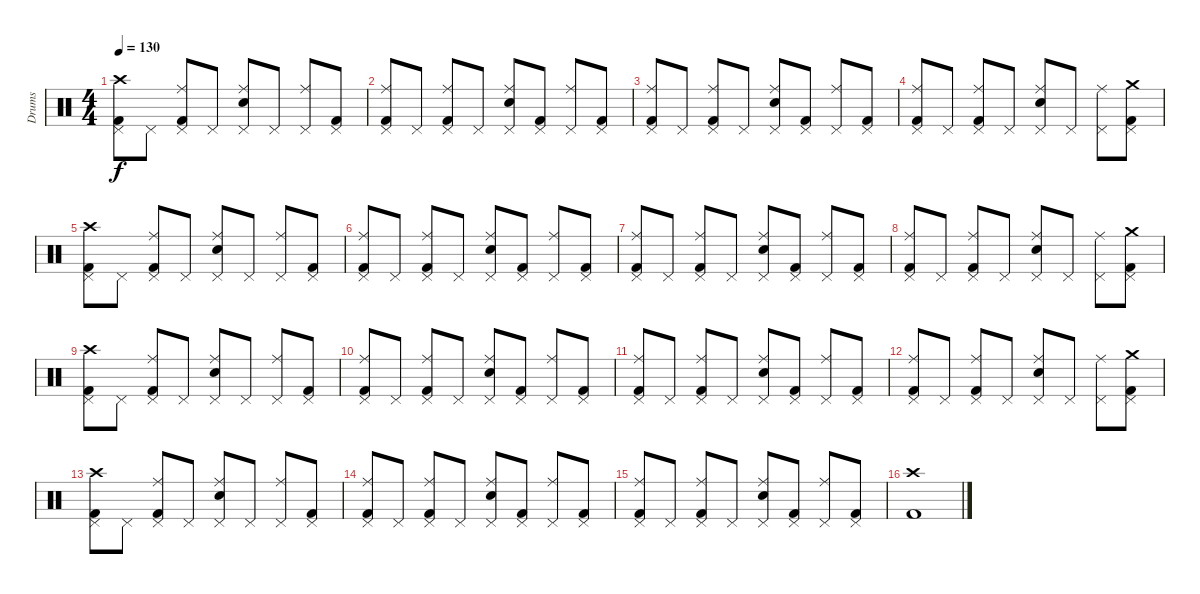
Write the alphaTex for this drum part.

\track ("Drums" "Drums") {instrument percussion}
\staff {score}
\articulation defaults
\ts (4 4)
\tempo 130
\clef neutral
\ks c
("Crash high (hit)" "Kick (hit) 2" "Pedal Hi-Hat (hit)").8{dy f} "Pedal Hi-Hat (hit)".8 ("Ride (middle)" "Kick (hit) 2" "Pedal Hi-Hat (hit)").8 "Pedal Hi-Hat (hit)".8 ("Ride (middle)" "Electric Snare (hit)" "Pedal Hi-Hat (hit)").8 "Pedal Hi-Hat (hit)".8 ("Ride (middle)" "Pedal Hi-Hat (hit)").8 ("Kick (hit) 2" "Pedal Hi-Hat (hit)").8 |
("Ride (middle)" "Kick (hit) 2" "Pedal Hi-Hat (hit)").8 "Pedal Hi-Hat (hit)".8 ("Ride (middle)" "Kick (hit) 2" "Pedal Hi-Hat (hit)").8 "Pedal Hi-Hat (hit)".8 ("Ride (middle)" "Electric Snare (hit)" "Pedal Hi-Hat (hit)").8 ("Kick (hit) 2" "Pedal Hi-Hat (hit)").8 ("Ride (middle)" "Pedal Hi-Hat (hit)").8 ("Kick (hit) 2" "Pedal Hi-Hat (hit)").8 |
("Ride (middle)" "Kick (hit) 2" "Pedal Hi-Hat (hit)").8 "Pedal Hi-Hat (hit)".8 ("Ride (middle)" "Kick (hit) 2" "Pedal Hi-Hat (hit)").8 "Pedal Hi-Hat (hit)".8 ("Ride (middle)" "Electric Snare (hit)" "Pedal Hi-Hat (hit)").8 ("Kick (hit) 2" "Pedal Hi-Hat (hit)").8 ("Ride (middle)" "Pedal Hi-Hat (hit)").8 ("Kick (hit) 2" "Pedal Hi-Hat (hit)").8 |
("Ride (middle)" "Kick (hit) 2" "Pedal Hi-Hat (hit)").8 "Pedal Hi-Hat (hit)".8 ("Ride (middle)" "Kick (hit) 2" "Pedal Hi-Hat (hit)").8 "Pedal Hi-Hat (hit)".8 ("Ride (middle)" "Electric Snare (hit)" "Pedal Hi-Hat (hit)").8 "Pedal Hi-Hat (hit)".8 ("Ride (middle)" "Pedal Hi-Hat (hit)").8 ("Crash medium (hit)" "Kick (hit) 2" "Pedal Hi-Hat (hit)").8 |
("Crash high (hit)" "Kick (hit) 2" "Pedal Hi-Hat (hit)").8 "Pedal Hi-Hat (hit)".8 ("Ride (middle)" "Kick (hit) 2" "Pedal Hi-Hat (hit)").8 "Pedal Hi-Hat (hit)".8 ("Ride (middle)" "Electric Snare (hit)" "Pedal Hi-Hat (hit)").8 "Pedal Hi-Hat (hit)".8 ("Ride (middle)" "Pedal Hi-Hat (hit)").8 ("Kick (hit) 2" "Pedal Hi-Hat (hit)").8 |
("Ride (middle)" "Kick (hit) 2" "Pedal Hi-Hat (hit)").8 "Pedal Hi-Hat (hit)".8 ("Ride (middle)" "Kick (hit) 2" "Pedal Hi-Hat (hit)").8 "Pedal Hi-Hat (hit)".8 ("Ride (middle)" "Electric Snare (hit)" "Pedal Hi-Hat (hit)").8 ("Kick (hit) 2" "Pedal Hi-Hat (hit)").8 ("Ride (middle)" "Pedal Hi-Hat (hit)").8 ("Kick (hit) 2" "Pedal Hi-Hat (hit)").8 |
("Ride (middle)" "Kick (hit) 2" "Pedal Hi-Hat (hit)").8 "Pedal Hi-Hat (hit)".8 ("Ride (middle)" "Kick (hit) 2" "Pedal Hi-Hat (hit)").8 "Pedal Hi-Hat (hit)".8 ("Ride (middle)" "Electric Snare (hit)" "Pedal Hi-Hat (hit)").8 ("Kick (hit) 2" "Pedal Hi-Hat (hit)").8 ("Ride (middle)" "Pedal Hi-Hat (hit)").8 ("Kick (hit) 2" "Pedal Hi-Hat (hit)").8 |
("Ride (middle)" "Kick (hit) 2" "Pedal Hi-Hat (hit)").8 "Pedal Hi-Hat (hit)".8 ("Ride (middle)" "Kick (hit) 2" "Pedal Hi-Hat (hit)").8 "Pedal Hi-Hat (hit)".8 ("Ride (middle)" "Electric Snare (hit)" "Pedal Hi-Hat (hit)").8 "Pedal Hi-Hat (hit)".8 ("Ride (middle)" "Pedal Hi-Hat (hit)").8 ("Crash medium (hit)" "Kick (hit) 2" "Pedal Hi-Hat (hit)").8 |
("Crash high (hit)" "Kick (hit) 2" "Pedal Hi-Hat (hit)").8 "Pedal Hi-Hat (hit)".8 ("Ride (middle)" "Kick (hit) 2" "Pedal Hi-Hat (hit)").8 "Pedal Hi-Hat (hit)".8 ("Ride (middle)" "Electric Snare (hit)" "Pedal Hi-Hat (hit)").8 "Pedal Hi-Hat (hit)".8 ("Ride (middle)" "Pedal Hi-Hat (hit)").8 ("Kick (hit) 2" "Pedal Hi-Hat (hit)").8 |
("Ride (middle)" "Kick (hit) 2" "Pedal Hi-Hat (hit)").8 "Pedal Hi-Hat (hit)".8 ("Ride (middle)" "Kick (hit) 2" "Pedal Hi-Hat (hit)").8 "Pedal Hi-Hat (hit)".8 ("Ride (middle)" "Electric Snare (hit)" "Pedal Hi-Hat (hit)").8 ("Kick (hit) 2" "Pedal Hi-Hat (hit)").8 ("Ride (middle)" "Pedal Hi-Hat (hit)").8 ("Kick (hit) 2" "Pedal Hi-Hat (hit)").8 |
("Ride (middle)" "Kick (hit) 2" "Pedal Hi-Hat (hit)").8 "Pedal Hi-Hat (hit)".8 ("Ride (middle)" "Kick (hit) 2" "Pedal Hi-Hat (hit)").8 "Pedal Hi-Hat (hit)".8 ("Ride (middle)" "Electric Snare (hit)" "Pedal Hi-Hat (hit)").8 ("Kick (hit) 2" "Pedal Hi-Hat (hit)").8 ("Ride (middle)" "Pedal Hi-Hat (hit)").8 ("Kick (hit) 2" "Pedal Hi-Hat (hit)").8 |
("Ride (middle)" "Kick (hit) 2" "Pedal Hi-Hat (hit)").8 "Pedal Hi-Hat (hit)".8 ("Ride (middle)" "Kick (hit) 2" "Pedal Hi-Hat (hit)").8 "Pedal Hi-Hat (hit)".8 ("Ride (middle)" "Electric Snare (hit)" "Pedal Hi-Hat (hit)").8 "Pedal Hi-Hat (hit)".8 ("Ride (middle)" "Pedal Hi-Hat (hit)").8 ("Crash medium (hit)" "Kick (hit) 2" "Pedal Hi-Hat (hit)").8 |
("Crash high (hit)" "Kick (hit) 2" "Pedal Hi-Hat (hit)").8 "Pedal Hi-Hat (hit)".8 ("Ride (middle)" "Kick (hit) 2" "Pedal Hi-Hat (hit)").8 "Pedal Hi-Hat (hit)".8 ("Ride (middle)" "Electric Snare (hit)" "Pedal Hi-Hat (hit)").8 "Pedal Hi-Hat (hit)".8 ("Ride (middle)" "Pedal Hi-Hat (hit)").8 ("Kick (hit) 2" "Pedal Hi-Hat (hit)").8 |
("Ride (middle)" "Kick (hit) 2" "Pedal Hi-Hat (hit)").8 "Pedal Hi-Hat (hit)".8 ("Ride (middle)" "Kick (hit) 2" "Pedal Hi-Hat (hit)").8 "Pedal Hi-Hat (hit)".8 ("Ride (middle)" "Electric Snare (hit)" "Pedal Hi-Hat (hit)").8 ("Kick (hit) 2" "Pedal Hi-Hat (hit)").8 ("Ride (middle)" "Pedal Hi-Hat (hit)").8 ("Kick (hit) 2" "Pedal Hi-Hat (hit)").8 |
("Ride (middle)" "Kick (hit) 2" "Pedal Hi-Hat (hit)").8 "Pedal Hi-Hat (hit)".8 ("Ride (middle)" "Kick (hit) 2" "Pedal Hi-Hat (hit)").8 "Pedal Hi-Hat (hit)".8 ("Ride (middle)" "Electric Snare (hit)" "Pedal Hi-Hat (hit)").8 ("Kick (hit) 2" "Pedal Hi-Hat (hit)").8 ("Ride (middle)" "Pedal Hi-Hat (hit)").8 ("Kick (hit) 2" "Pedal Hi-Hat (hit)").8 |
("Crash high (hit)" "Kick (hit) 2").1
